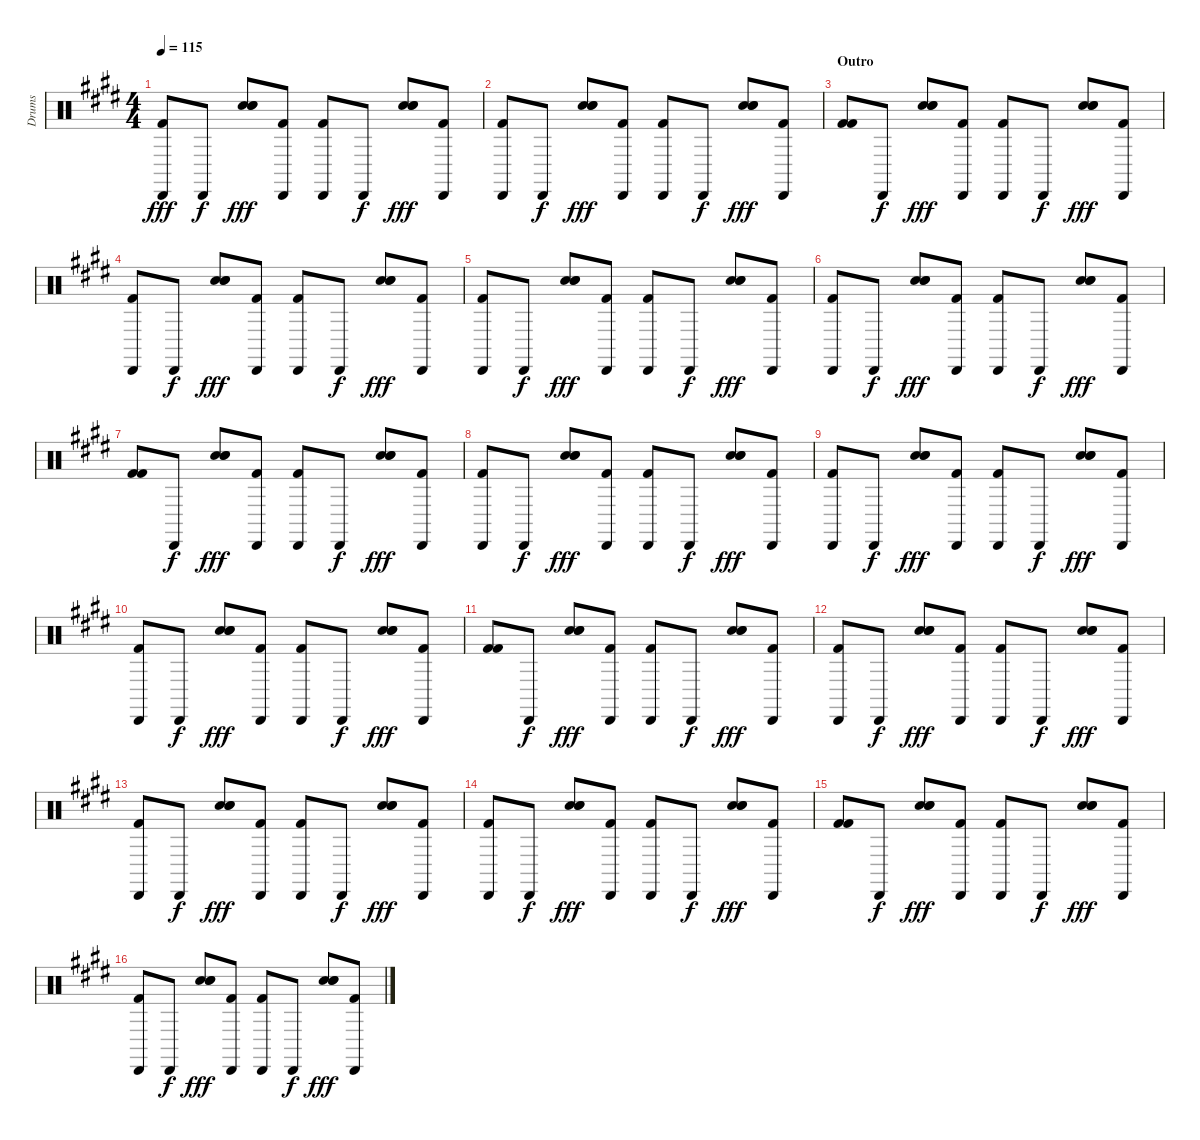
\track ("Drums" "Drums") {instrument percussion}
\staff {score}
\articulation defaults
\ts (4 4)
\tempo 115
\clef neutral
\ks c#minor
("Cabasa (hit)" "Kick (hit) 2").8{dy fff} "Cabasa (hit)".8{dy f} ("Snare (hit) 2" "Hand Clap (hit)" "Hand Clap (hit)").8{bd 30 dy fff} ("Cabasa (hit)" "Kick (hit) 2").8 ("Cabasa (hit)" "Kick (hit) 2").8 "Cabasa (hit)".8{dy f} ("Snare (hit) 2" "Hand Clap (hit)" "Hand Clap (hit)").8{bd 30 dy fff} ("Cabasa (hit)" "Kick (hit) 2").8 |
("Cabasa (hit)" "Kick (hit) 2").8 "Cabasa (hit)".8{dy f} ("Snare (hit) 2" "Hand Clap (hit)" "Hand Clap (hit)").8{bd 30 dy fff} ("Cabasa (hit)" "Kick (hit) 2").8 ("Cabasa (hit)" "Kick (hit) 2").8 "Cabasa (hit)".8{dy f} ("Snare (hit) 2" "Hand Clap (hit)" "Hand Clap (hit)").8{bd 30 dy fff} ("Cabasa (hit)" "Kick (hit) 2").8 |
\section ("" "Outro")
("Kick (hit) 2" "Kick (hit) 2").8 "Cabasa (hit)".8{dy f} ("Snare (hit) 2" "Hand Clap (hit)" "Hand Clap (hit)").8{bd 30 dy fff} ("Cabasa (hit)" "Kick (hit) 2").8 ("Cabasa (hit)" "Kick (hit) 2").8 "Cabasa (hit)".8{dy f} ("Snare (hit) 2" "Hand Clap (hit)" "Hand Clap (hit)").8{bd 30 dy fff} ("Cabasa (hit)" "Kick (hit) 2").8 |
("Cabasa (hit)" "Kick (hit) 2").8 "Cabasa (hit)".8{dy f} ("Snare (hit) 2" "Hand Clap (hit)" "Hand Clap (hit)").8{bd 30 dy fff} ("Cabasa (hit)" "Kick (hit) 2").8 ("Cabasa (hit)" "Kick (hit) 2").8 "Cabasa (hit)".8{dy f} ("Snare (hit) 2" "Hand Clap (hit)" "Hand Clap (hit)").8{bd 30 dy fff} ("Cabasa (hit)" "Kick (hit) 2").8 |
("Cabasa (hit)" "Kick (hit) 2").8 "Cabasa (hit)".8{dy f} ("Snare (hit) 2" "Hand Clap (hit)" "Hand Clap (hit)").8{bd 30 dy fff} ("Cabasa (hit)" "Kick (hit) 2").8 ("Cabasa (hit)" "Kick (hit) 2").8 "Cabasa (hit)".8{dy f} ("Snare (hit) 2" "Hand Clap (hit)" "Hand Clap (hit)").8{bd 30 dy fff} ("Cabasa (hit)" "Kick (hit) 2").8 |
("Cabasa (hit)" "Kick (hit) 2").8 "Cabasa (hit)".8{dy f} ("Snare (hit) 2" "Hand Clap (hit)" "Hand Clap (hit)").8{bd 30 dy fff} ("Cabasa (hit)" "Kick (hit) 2").8 ("Cabasa (hit)" "Kick (hit) 2").8 "Cabasa (hit)".8{dy f} ("Snare (hit) 2" "Hand Clap (hit)" "Hand Clap (hit)").8{bd 30 dy fff} ("Cabasa (hit)" "Kick (hit) 2").8 |
("Kick (hit) 2" "Kick (hit) 2").8 "Cabasa (hit)".8{dy f} ("Snare (hit) 2" "Hand Clap (hit)" "Hand Clap (hit)").8{bd 30 dy fff} ("Cabasa (hit)" "Kick (hit) 2").8 ("Cabasa (hit)" "Kick (hit) 2").8 "Cabasa (hit)".8{dy f} ("Snare (hit) 2" "Hand Clap (hit)" "Hand Clap (hit)").8{bd 30 dy fff} ("Cabasa (hit)" "Kick (hit) 2").8 |
("Cabasa (hit)" "Kick (hit) 2").8 "Cabasa (hit)".8{dy f} ("Snare (hit) 2" "Hand Clap (hit)" "Hand Clap (hit)").8{bd 30 dy fff} ("Cabasa (hit)" "Kick (hit) 2").8 ("Cabasa (hit)" "Kick (hit) 2").8 "Cabasa (hit)".8{dy f} ("Snare (hit) 2" "Hand Clap (hit)" "Hand Clap (hit)").8{bd 30 dy fff} ("Cabasa (hit)" "Kick (hit) 2").8 |
("Cabasa (hit)" "Kick (hit) 2").8 "Cabasa (hit)".8{dy f} ("Snare (hit) 2" "Hand Clap (hit)" "Hand Clap (hit)").8{bd 30 dy fff} ("Cabasa (hit)" "Kick (hit) 2").8 ("Cabasa (hit)" "Kick (hit) 2").8 "Cabasa (hit)".8{dy f} ("Snare (hit) 2" "Hand Clap (hit)" "Hand Clap (hit)").8{bd 30 dy fff} ("Cabasa (hit)" "Kick (hit) 2").8 |
("Cabasa (hit)" "Kick (hit) 2").8 "Cabasa (hit)".8{dy f} ("Snare (hit) 2" "Hand Clap (hit)" "Hand Clap (hit)").8{bd 30 dy fff} ("Cabasa (hit)" "Kick (hit) 2").8 ("Cabasa (hit)" "Kick (hit) 2").8 "Cabasa (hit)".8{dy f} ("Snare (hit) 2" "Hand Clap (hit)" "Hand Clap (hit)").8{bd 30 dy fff} ("Cabasa (hit)" "Kick (hit) 2").8 |
("Kick (hit) 2" "Kick (hit) 2").8 "Cabasa (hit)".8{dy f} ("Snare (hit) 2" "Hand Clap (hit)" "Hand Clap (hit)").8{bd 30 dy fff} ("Cabasa (hit)" "Kick (hit) 2").8 ("Cabasa (hit)" "Kick (hit) 2").8 "Cabasa (hit)".8{dy f} ("Snare (hit) 2" "Hand Clap (hit)" "Hand Clap (hit)").8{bd 30 dy fff} ("Cabasa (hit)" "Kick (hit) 2").8 |
("Cabasa (hit)" "Kick (hit) 2").8 "Cabasa (hit)".8{dy f} ("Snare (hit) 2" "Hand Clap (hit)" "Hand Clap (hit)").8{bd 30 dy fff} ("Cabasa (hit)" "Kick (hit) 2").8 ("Cabasa (hit)" "Kick (hit) 2").8 "Cabasa (hit)".8{dy f} ("Snare (hit) 2" "Hand Clap (hit)" "Hand Clap (hit)").8{bd 30 dy fff} ("Cabasa (hit)" "Kick (hit) 2").8 |
("Cabasa (hit)" "Kick (hit) 2").8 "Cabasa (hit)".8{dy f} ("Snare (hit) 2" "Hand Clap (hit)" "Hand Clap (hit)").8{bd 30 dy fff} ("Cabasa (hit)" "Kick (hit) 2").8 ("Cabasa (hit)" "Kick (hit) 2").8 "Cabasa (hit)".8{dy f} ("Snare (hit) 2" "Hand Clap (hit)" "Hand Clap (hit)").8{bd 30 dy fff} ("Cabasa (hit)" "Kick (hit) 2").8 |
("Cabasa (hit)" "Kick (hit) 2").8 "Cabasa (hit)".8{dy f} ("Snare (hit) 2" "Hand Clap (hit)" "Hand Clap (hit)").8{bd 30 dy fff} ("Cabasa (hit)" "Kick (hit) 2").8 ("Cabasa (hit)" "Kick (hit) 2").8 "Cabasa (hit)".8{dy f} ("Snare (hit) 2" "Hand Clap (hit)" "Hand Clap (hit)").8{bd 30 dy fff} ("Cabasa (hit)" "Kick (hit) 2").8 |
("Kick (hit) 2" "Kick (hit) 2").8 "Cabasa (hit)".8{dy f} ("Snare (hit) 2" "Hand Clap (hit)" "Hand Clap (hit)").8{bd 30 dy fff} ("Cabasa (hit)" "Kick (hit) 2").8 ("Cabasa (hit)" "Kick (hit) 2").8 "Cabasa (hit)".8{dy f} ("Snare (hit) 2" "Hand Clap (hit)" "Hand Clap (hit)").8{bd 30 dy fff} ("Cabasa (hit)" "Kick (hit) 2").8 |
("Cabasa (hit)" "Kick (hit) 2").8 "Cabasa (hit)".8{dy f} ("Snare (hit) 2" "Hand Clap (hit)" "Hand Clap (hit)").8{bd 30 dy fff} ("Cabasa (hit)" "Kick (hit) 2").8 ("Cabasa (hit)" "Kick (hit) 2").8 "Cabasa (hit)".8{dy f} ("Snare (hit) 2" "Hand Clap (hit)" "Hand Clap (hit)").8{bd 30 dy fff} ("Cabasa (hit)" "Kick (hit) 2").8
